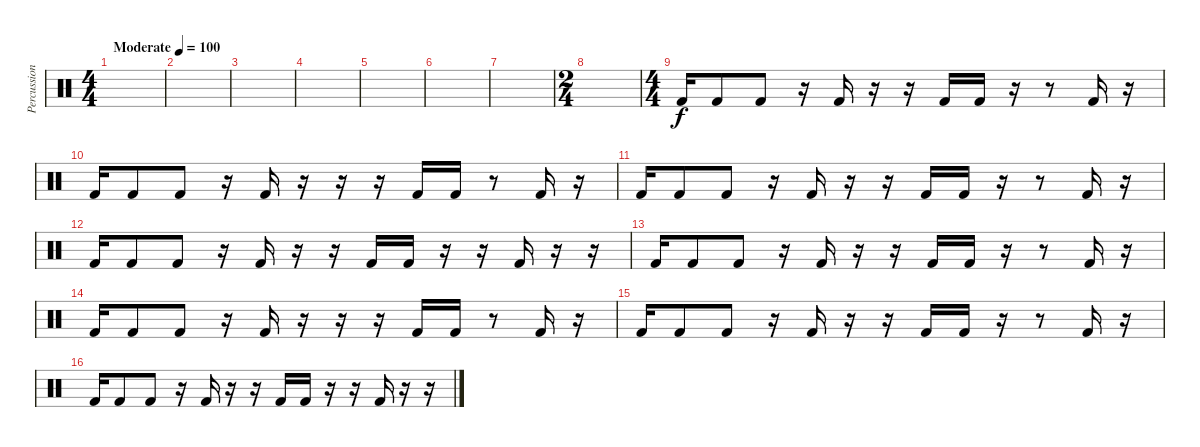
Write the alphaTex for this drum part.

\track ("Percussion" "Percussion") {instrument percussion}
\staff {score}
\articulation defaults
\ts (4 4)
\tempo (100 "Moderate")
\clef neutral
\ks c
|
|
|
|
|
|
|
\ts (2 4)
|
\ts (4 4)
"Kick (hit) 2".16 "Kick (hit) 2".8 "Kick (hit) 2".8 r.16 "Kick (hit) 2".16 r.16 r.16 "Kick (hit) 2".16 "Kick (hit) 2".16 r.16 r.8 "Kick (hit) 2".16 r.16 |
"Kick (hit) 2".16 "Kick (hit) 2".8 "Kick (hit) 2".8 r.16 "Kick (hit) 2".16 r.16 r.16 r.16 "Kick (hit) 2".16 "Kick (hit) 2".16 r.8 "Kick (hit) 2".16 r.16 |
"Kick (hit) 2".16 "Kick (hit) 2".8 "Kick (hit) 2".8 r.16 "Kick (hit) 2".16 r.16 r.16 "Kick (hit) 2".16 "Kick (hit) 2".16 r.16 r.8 "Kick (hit) 2".16 r.16 |
"Kick (hit) 2".16 "Kick (hit) 2".8 "Kick (hit) 2".8 r.16 "Kick (hit) 2".16 r.16 r.16 "Kick (hit) 2".16 "Kick (hit) 2".16 r.16 r.16 "Kick (hit) 2".16 r.16 r.16 |
"Kick (hit) 2".16 "Kick (hit) 2".8 "Kick (hit) 2".8 r.16 "Kick (hit) 2".16 r.16 r.16 "Kick (hit) 2".16 "Kick (hit) 2".16 r.16 r.8 "Kick (hit) 2".16 r.16 |
"Kick (hit) 2".16 "Kick (hit) 2".8 "Kick (hit) 2".8 r.16 "Kick (hit) 2".16 r.16 r.16 r.16 "Kick (hit) 2".16 "Kick (hit) 2".16 r.8 "Kick (hit) 2".16 r.16 |
"Kick (hit) 2".16 "Kick (hit) 2".8 "Kick (hit) 2".8 r.16 "Kick (hit) 2".16 r.16 r.16 "Kick (hit) 2".16 "Kick (hit) 2".16 r.16 r.8 "Kick (hit) 2".16 r.16 |
"Kick (hit) 2".16 "Kick (hit) 2".8 "Kick (hit) 2".8 r.16 "Kick (hit) 2".16 r.16 r.16 "Kick (hit) 2".16 "Kick (hit) 2".16 r.16 r.16 "Kick (hit) 2".16 r.16 r.16
